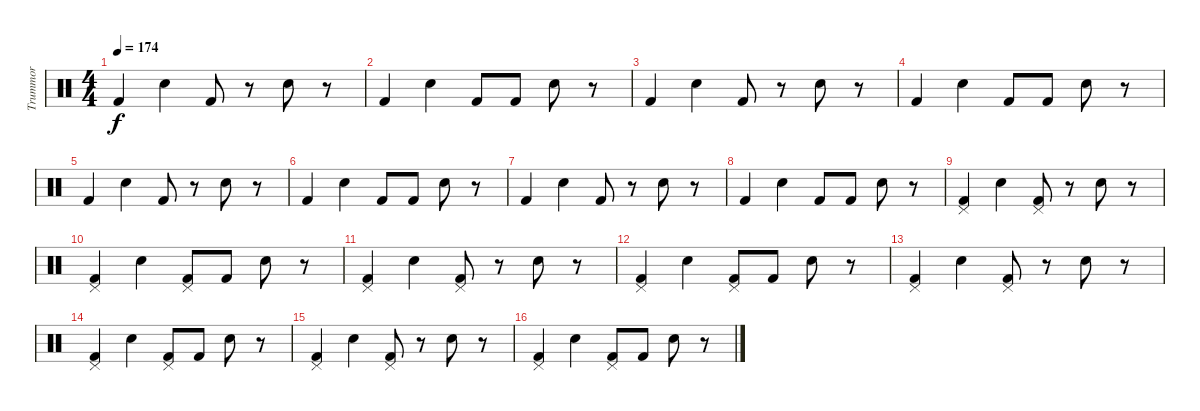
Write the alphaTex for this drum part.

\track ("Trummor" "Trummor") {instrument percussion}
\staff {score}
\articulation defaults
\ts (4 4)
\tempo 174
\clef neutral
\ks c "Kick (hit) 2".4{dy f} "Snare (hit) 2".4 "Kick (hit) 2".8
r.8 "Snare (hit) 2".8 r.8 |
"Kick (hit) 2".4 "Snare (hit) 2".4 "Kick (hit) 2".8 "Kick (hit) 2".8 "Snare (hit) 2".8 r.8 |
"Kick (hit) 2".4 "Snare (hit) 2".4 "Kick (hit) 2".8 r.8 "Snare (hit) 2".8 r.8 |
"Kick (hit) 2".4 "Snare (hit) 2".4 "Kick (hit) 2".8 "Kick (hit) 2".8 "Snare (hit) 2".8 r.8 |
"Kick (hit) 2".4 "Snare (hit) 2".4 "Kick (hit) 2".8 r.8 "Snare (hit) 2".8 r.8 |
"Kick (hit) 2".4 "Snare (hit) 2".4 "Kick (hit) 2".8 "Kick (hit) 2".8 "Snare (hit) 2".8 r.8 |
"Kick (hit) 2".4 "Snare (hit) 2".4 "Kick (hit) 2".8 r.8 "Snare (hit) 2".8 r.8 |
"Kick (hit) 2".4 "Snare (hit) 2".4 "Kick (hit) 2".8 "Kick (hit) 2".8 "Snare (hit) 2".8 r.8 |
("Pedal Hi-Hat (hit)" "Kick (hit) 2").4 "Snare (hit) 2".4 ("Pedal Hi-Hat (hit)" "Kick (hit) 2").8 r.8 "Snare (hit) 2".8 r.8 |
("Pedal Hi-Hat (hit)" "Kick (hit) 2").4 "Snare (hit) 2".4 ("Pedal Hi-Hat (hit)" "Kick (hit) 2").8 "Kick (hit) 2".8 "Snare (hit) 2".8 r.8 |
("Pedal Hi-Hat (hit)" "Kick (hit) 2").4 "Snare (hit) 2".4 ("Pedal Hi-Hat (hit)" "Kick (hit) 2").8 r.8 "Snare (hit) 2".8 r.8 |
("Pedal Hi-Hat (hit)" "Kick (hit) 2").4 "Snare (hit) 2".4 ("Pedal Hi-Hat (hit)" "Kick (hit) 2").8 "Kick (hit) 2".8 "Snare (hit) 2".8 r.8 |
("Pedal Hi-Hat (hit)" "Kick (hit) 2").4 "Snare (hit) 2".4 ("Pedal Hi-Hat (hit)" "Kick (hit) 2").8 r.8 "Snare (hit) 2".8 r.8 |
("Pedal Hi-Hat (hit)" "Kick (hit) 2").4 "Snare (hit) 2".4 ("Pedal Hi-Hat (hit)" "Kick (hit) 2").8 "Kick (hit) 2".8 "Snare (hit) 2".8 r.8 |
("Pedal Hi-Hat (hit)" "Kick (hit) 2").4 "Snare (hit) 2".4 ("Pedal Hi-Hat (hit)" "Kick (hit) 2").8 r.8 "Snare (hit) 2".8 r.8 |
("Pedal Hi-Hat (hit)" "Kick (hit) 2").4 "Snare (hit) 2".4 ("Pedal Hi-Hat (hit)" "Kick (hit) 2").8 "Kick (hit) 2".8 "Snare (hit) 2".8 r.8
